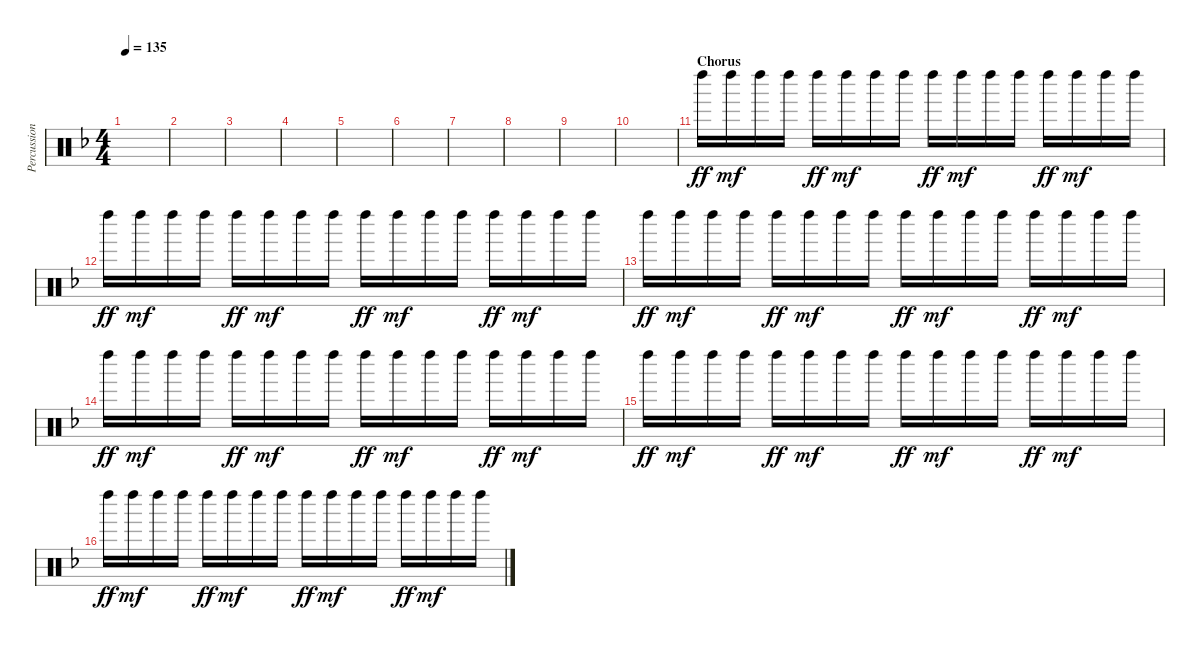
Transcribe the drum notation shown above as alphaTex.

\track ("Percussions" "Percussion") {instrument percussion}
\staff {score}
\articulation defaults
\ts (4 4)
\tempo 135
\clef neutral
\ks f
|
|
|
|
|
|
|
|
|
|
\section ("" "Chorus")
"Left Maraca (hit)".16{dy ff} "Left Maraca (hit)".16{dy mf} "Left Maraca (hit)".16 "Left Maraca (hit)".16 "Left Maraca (hit)".16{dy ff} "Left Maraca (hit)".16{dy mf} "Left Maraca (hit)".16 "Left Maraca (hit)".16 "Left Maraca (hit)".16{dy ff} "Left Maraca (hit)".16{dy mf} "Left Maraca (hit)".16 "Left Maraca (hit)".16 "Left Maraca (hit)".16{dy ff} "Left Maraca (hit)".16{dy mf} "Left Maraca (hit)".16 "Left Maraca (hit)".16 |
"Left Maraca (hit)".16{dy ff} "Left Maraca (hit)".16{dy mf} "Left Maraca (hit)".16 "Left Maraca (hit)".16 "Left Maraca (hit)".16{dy ff} "Left Maraca (hit)".16{dy mf} "Left Maraca (hit)".16 "Left Maraca (hit)".16 "Left Maraca (hit)".16{dy ff} "Left Maraca (hit)".16{dy mf} "Left Maraca (hit)".16 "Left Maraca (hit)".16 "Left Maraca (hit)".16{dy ff} "Left Maraca (hit)".16{dy mf} "Left Maraca (hit)".16 "Left Maraca (hit)".16 |
"Left Maraca (hit)".16{dy ff} "Left Maraca (hit)".16{dy mf} "Left Maraca (hit)".16 "Left Maraca (hit)".16 "Left Maraca (hit)".16{dy ff} "Left Maraca (hit)".16{dy mf} "Left Maraca (hit)".16 "Left Maraca (hit)".16 "Left Maraca (hit)".16{dy ff} "Left Maraca (hit)".16{dy mf} "Left Maraca (hit)".16 "Left Maraca (hit)".16 "Left Maraca (hit)".16{dy ff} "Left Maraca (hit)".16{dy mf} "Left Maraca (hit)".16 "Left Maraca (hit)".16 |
"Left Maraca (hit)".16{dy ff} "Left Maraca (hit)".16{dy mf} "Left Maraca (hit)".16 "Left Maraca (hit)".16 "Left Maraca (hit)".16{dy ff} "Left Maraca (hit)".16{dy mf} "Left Maraca (hit)".16 "Left Maraca (hit)".16 "Left Maraca (hit)".16{dy ff} "Left Maraca (hit)".16{dy mf} "Left Maraca (hit)".16 "Left Maraca (hit)".16 "Left Maraca (hit)".16{dy ff} "Left Maraca (hit)".16{dy mf} "Left Maraca (hit)".16 "Left Maraca (hit)".16 |
"Left Maraca (hit)".16{dy ff} "Left Maraca (hit)".16{dy mf} "Left Maraca (hit)".16 "Left Maraca (hit)".16 "Left Maraca (hit)".16{dy ff} "Left Maraca (hit)".16{dy mf} "Left Maraca (hit)".16 "Left Maraca (hit)".16 "Left Maraca (hit)".16{dy ff} "Left Maraca (hit)".16{dy mf} "Left Maraca (hit)".16 "Left Maraca (hit)".16 "Left Maraca (hit)".16{dy ff} "Left Maraca (hit)".16{dy mf} "Left Maraca (hit)".16 "Left Maraca (hit)".16 |
"Left Maraca (hit)".16{dy ff} "Left Maraca (hit)".16{dy mf} "Left Maraca (hit)".16 "Left Maraca (hit)".16 "Left Maraca (hit)".16{dy ff} "Left Maraca (hit)".16{dy mf} "Left Maraca (hit)".16 "Left Maraca (hit)".16 "Left Maraca (hit)".16{dy ff} "Left Maraca (hit)".16{dy mf} "Left Maraca (hit)".16 "Left Maraca (hit)".16 "Left Maraca (hit)".16{dy ff} "Left Maraca (hit)".16{dy mf} "Left Maraca (hit)".16 "Left Maraca (hit)".16
